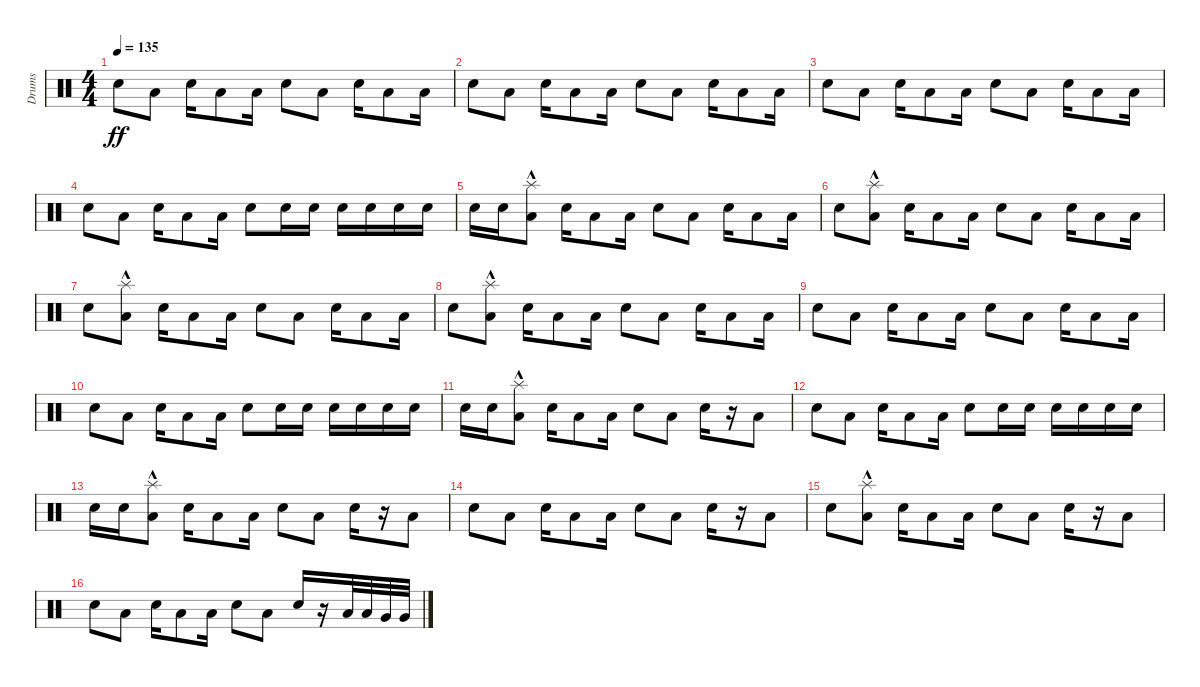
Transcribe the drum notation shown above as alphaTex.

\track ("Drums" "Drums") {instrument percussion}
\staff {score}
\articulation defaults
\ts (4 4)
\tempo 135
\clef neutral
\ks c "Electric Snare (hit)".8{dy ff} "Low Floor Tom (hit)".8 "Electric Snare (hit)".16 "Low Floor Tom (hit)".8 "Low Floor Tom (hit)".16 "Electric Snare (hit)".8 "Low Floor Tom (hit)".8 "Electric Snare (hit)".16 "Low Floor Tom (hit)".8 "Low Floor Tom (hit)".16
|
"Electric Snare (hit)".8 "Low Floor Tom (hit)".8 "Electric Snare (hit)".16 "Low Floor Tom (hit)".8 "Low Floor Tom (hit)".16 "Electric Snare (hit)".8 "Low Floor Tom (hit)".8 "Electric Snare (hit)".16 "Low Floor Tom (hit)".8 "Low Floor Tom (hit)".16 |
"Electric Snare (hit)".8 "Low Floor Tom (hit)".8 "Electric Snare (hit)".16 "Low Floor Tom (hit)".8 "Low Floor Tom (hit)".16 "Electric Snare (hit)".8 "Low Floor Tom (hit)".8 "Electric Snare (hit)".16 "Low Floor Tom (hit)".8 "Low Floor Tom (hit)".16 |
"Electric Snare (hit)".8 "Low Floor Tom (hit)".8 "Electric Snare (hit)".16 "Low Floor Tom (hit)".8 "Low Floor Tom (hit)".16 "Electric Snare (hit)".8 "Electric Snare (hit)".16 "Electric Snare (hit)".16 "Electric Snare (hit)".16 "Electric Snare (hit)".16 "Electric Snare (hit)".16 "Electric Snare (hit)".16 |
"Electric Snare (hit)".16 "Electric Snare (hit)".16 ("Low Floor Tom (hit)" "Splash (hit)"{hac}).8 "Electric Snare (hit)".16 "Low Floor Tom (hit)".8 "Low Floor Tom (hit)".16 "Electric Snare (hit)".8 "Low Floor Tom (hit)".8 "Electric Snare (hit)".16 "Low Floor Tom (hit)".8 "Low Floor Tom (hit)".16 |
"Electric Snare (hit)".8 ("Low Floor Tom (hit)" "Splash (hit)"{hac}).8 "Electric Snare (hit)".16 "Low Floor Tom (hit)".8 "Low Floor Tom (hit)".16 "Electric Snare (hit)".8 "Low Floor Tom (hit)".8 "Electric Snare (hit)".16 "Low Floor Tom (hit)".8 "Low Floor Tom (hit)".16 |
"Electric Snare (hit)".8 ("Low Floor Tom (hit)" "Splash (hit)"{hac}).8 "Electric Snare (hit)".16 "Low Floor Tom (hit)".8 "Low Floor Tom (hit)".16 "Electric Snare (hit)".8 "Low Floor Tom (hit)".8 "Electric Snare (hit)".16 "Low Floor Tom (hit)".8 "Low Floor Tom (hit)".16 |
"Electric Snare (hit)".8 ("Low Floor Tom (hit)" "Splash (hit)"{hac}).8 "Electric Snare (hit)".16 "Low Floor Tom (hit)".8 "Low Floor Tom (hit)".16 "Electric Snare (hit)".8 "Low Floor Tom (hit)".8 "Electric Snare (hit)".16 "Low Floor Tom (hit)".8 "Low Floor Tom (hit)".16 |
"Electric Snare (hit)".8 "Low Floor Tom (hit)".8 "Electric Snare (hit)".16 "Low Floor Tom (hit)".8 "Low Floor Tom (hit)".16 "Electric Snare (hit)".8 "Low Floor Tom (hit)".8 "Electric Snare (hit)".16 "Low Floor Tom (hit)".8 "Low Floor Tom (hit)".16 |
"Electric Snare (hit)".8 "Low Floor Tom (hit)".8 "Electric Snare (hit)".16 "Low Floor Tom (hit)".8 "Low Floor Tom (hit)".16 "Electric Snare (hit)".8 "Electric Snare (hit)".16 "Electric Snare (hit)".16 "Electric Snare (hit)".16 "Electric Snare (hit)".16 "Electric Snare (hit)".16 "Electric Snare (hit)".16 |
"Electric Snare (hit)".16 "Electric Snare (hit)".16 ("Low Floor Tom (hit)" "Splash (hit)"{hac}).8 "Electric Snare (hit)".16 "Low Floor Tom (hit)".8 "Low Floor Tom (hit)".16 "Electric Snare (hit)".8 "Low Floor Tom (hit)".8 "Electric Snare (hit)".16 r.16 "Low Floor Tom (hit)".8 |
"Electric Snare (hit)".8 "Low Floor Tom (hit)".8 "Electric Snare (hit)".16 "Low Floor Tom (hit)".8 "Low Floor Tom (hit)".16 "Electric Snare (hit)".8 "Electric Snare (hit)".16 "Electric Snare (hit)".16 "Electric Snare (hit)".16 "Electric Snare (hit)".16 "Electric Snare (hit)".16 "Electric Snare (hit)".16 |
"Electric Snare (hit)".16 "Electric Snare (hit)".16 ("Low Floor Tom (hit)" "Splash (hit)"{hac}).8 "Electric Snare (hit)".16 "Low Floor Tom (hit)".8 "Low Floor Tom (hit)".16 "Electric Snare (hit)".8 "Low Floor Tom (hit)".8 "Electric Snare (hit)".16 r.16 "Low Floor Tom (hit)".8 |
"Electric Snare (hit)".8 "Low Floor Tom (hit)".8 "Electric Snare (hit)".16 "Low Floor Tom (hit)".8 "Low Floor Tom (hit)".16 "Electric Snare (hit)".8 "Low Floor Tom (hit)".8 "Electric Snare (hit)".16 r.16 "Low Floor Tom (hit)".8 |
"Electric Snare (hit)".8 ("Low Floor Tom (hit)" "Splash (hit)"{hac}).8 "Electric Snare (hit)".16 "Low Floor Tom (hit)".8 "Low Floor Tom (hit)".16 "Electric Snare (hit)".8 "Low Floor Tom (hit)".8 "Electric Snare (hit)".16 r.16 "Low Floor Tom (hit)".8 |
"Electric Snare (hit)".8 "Low Floor Tom (hit)".8 "Electric Snare (hit)".16 "Low Floor Tom (hit)".8 "Low Floor Tom (hit)".16 "Electric Snare (hit)".8 "Low Floor Tom (hit)".8 "Electric Snare (hit)".16 r.16 "Low Tom (hit)".32 "Low Tom (hit)".32 "Very Low Tom (hit)".32 "Very Low Tom (hit)".32
